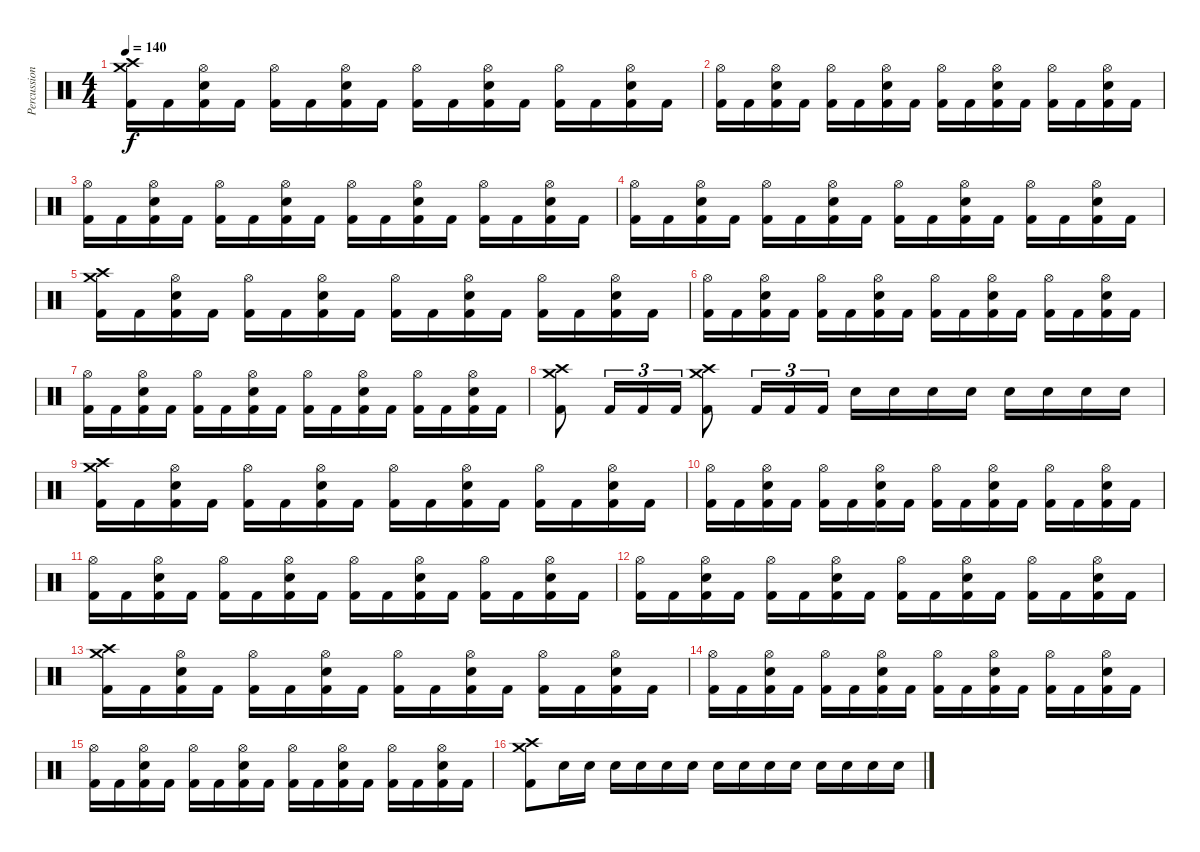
\track ("Percussion" "Percussion") {instrument percussion}
\staff {score}
\articulation defaults
\ts (4 4)
\tempo 140
\clef neutral
\ks c
("Kick (hit) 2" "Crash high (hit)" "Crash medium (hit)").16{dy f} "Kick (hit) 2".16 ("Kick (hit) 2" "Electric Snare (hit)" "Hi-Hat (open)").16 "Kick (hit) 2".16 ("Kick (hit) 2" "Hi-Hat (open)").16 "Kick (hit) 2".16 ("Kick (hit) 2" "Electric Snare (hit)" "Hi-Hat (open)").16 "Kick (hit) 2".16 ("Kick (hit) 2" "Hi-Hat (open)").16 "Kick (hit) 2".16 ("Kick (hit) 2" "Electric Snare (hit)" "Hi-Hat (open)").16 "Kick (hit) 2".16 ("Kick (hit) 2" "Hi-Hat (open)").16 "Kick (hit) 2".16 ("Kick (hit) 2" "Electric Snare (hit)" "Hi-Hat (open)").16 "Kick (hit) 2".16 |
("Kick (hit) 2" "Hi-Hat (open)").16 "Kick (hit) 2".16 ("Kick (hit) 2" "Electric Snare (hit)" "Hi-Hat (open)").16 "Kick (hit) 2".16 ("Kick (hit) 2" "Hi-Hat (open)").16 "Kick (hit) 2".16 ("Kick (hit) 2" "Electric Snare (hit)" "Hi-Hat (open)").16 "Kick (hit) 2".16 ("Kick (hit) 2" "Hi-Hat (open)").16 "Kick (hit) 2".16 ("Kick (hit) 2" "Electric Snare (hit)" "Hi-Hat (open)").16 "Kick (hit) 2".16 ("Kick (hit) 2" "Hi-Hat (open)").16 "Kick (hit) 2".16 ("Kick (hit) 2" "Electric Snare (hit)" "Hi-Hat (open)").16 "Kick (hit) 2".16 |
("Kick (hit) 2" "Hi-Hat (open)").16 "Kick (hit) 2".16 ("Kick (hit) 2" "Electric Snare (hit)" "Hi-Hat (open)").16 "Kick (hit) 2".16 ("Kick (hit) 2" "Hi-Hat (open)").16 "Kick (hit) 2".16 ("Kick (hit) 2" "Electric Snare (hit)" "Hi-Hat (open)").16 "Kick (hit) 2".16 ("Kick (hit) 2" "Hi-Hat (open)").16 "Kick (hit) 2".16 ("Kick (hit) 2" "Electric Snare (hit)" "Hi-Hat (open)").16 "Kick (hit) 2".16 ("Kick (hit) 2" "Hi-Hat (open)").16 "Kick (hit) 2".16 ("Kick (hit) 2" "Electric Snare (hit)" "Hi-Hat (open)").16 "Kick (hit) 2".16 |
("Kick (hit) 2" "Hi-Hat (open)").16 "Kick (hit) 2".16 ("Kick (hit) 2" "Electric Snare (hit)" "Hi-Hat (open)").16 "Kick (hit) 2".16 ("Kick (hit) 2" "Hi-Hat (open)").16 "Kick (hit) 2".16 ("Kick (hit) 2" "Electric Snare (hit)" "Hi-Hat (open)").16 "Kick (hit) 2".16 ("Kick (hit) 2" "Hi-Hat (open)").16 "Kick (hit) 2".16 ("Kick (hit) 2" "Electric Snare (hit)" "Hi-Hat (open)").16 "Kick (hit) 2".16 ("Kick (hit) 2" "Hi-Hat (open)").16 "Kick (hit) 2".16 ("Kick (hit) 2" "Electric Snare (hit)" "Hi-Hat (open)").16 "Kick (hit) 2".16 |
("Kick (hit) 2" "Crash high (hit)" "Crash medium (hit)").16 "Kick (hit) 2".16 ("Kick (hit) 2" "Electric Snare (hit)" "Hi-Hat (open)").16 "Kick (hit) 2".16 ("Kick (hit) 2" "Hi-Hat (open)").16 "Kick (hit) 2".16 ("Kick (hit) 2" "Electric Snare (hit)" "Hi-Hat (open)").16 "Kick (hit) 2".16 ("Kick (hit) 2" "Hi-Hat (open)").16 "Kick (hit) 2".16 ("Kick (hit) 2" "Electric Snare (hit)" "Hi-Hat (open)").16 "Kick (hit) 2".16 ("Kick (hit) 2" "Hi-Hat (open)").16 "Kick (hit) 2".16 ("Kick (hit) 2" "Electric Snare (hit)" "Hi-Hat (open)").16 "Kick (hit) 2".16 |
("Kick (hit) 2" "Hi-Hat (open)").16 "Kick (hit) 2".16 ("Kick (hit) 2" "Electric Snare (hit)" "Hi-Hat (open)").16 "Kick (hit) 2".16 ("Kick (hit) 2" "Hi-Hat (open)").16 "Kick (hit) 2".16 ("Kick (hit) 2" "Electric Snare (hit)" "Hi-Hat (open)").16 "Kick (hit) 2".16 ("Kick (hit) 2" "Hi-Hat (open)").16 "Kick (hit) 2".16 ("Kick (hit) 2" "Electric Snare (hit)" "Hi-Hat (open)").16 "Kick (hit) 2".16 ("Kick (hit) 2" "Hi-Hat (open)").16 "Kick (hit) 2".16 ("Kick (hit) 2" "Electric Snare (hit)" "Hi-Hat (open)").16 "Kick (hit) 2".16 |
("Kick (hit) 2" "Hi-Hat (open)").16 "Kick (hit) 2".16 ("Kick (hit) 2" "Electric Snare (hit)" "Hi-Hat (open)").16 "Kick (hit) 2".16 ("Kick (hit) 2" "Hi-Hat (open)").16 "Kick (hit) 2".16 ("Kick (hit) 2" "Electric Snare (hit)" "Hi-Hat (open)").16 "Kick (hit) 2".16 ("Kick (hit) 2" "Hi-Hat (open)").16 "Kick (hit) 2".16 ("Kick (hit) 2" "Electric Snare (hit)" "Hi-Hat (open)").16 "Kick (hit) 2".16 ("Kick (hit) 2" "Hi-Hat (open)").16 "Kick (hit) 2".16 ("Kick (hit) 2" "Electric Snare (hit)" "Hi-Hat (open)").16 "Kick (hit) 2".16 |
("Kick (hit) 2" "Crash high (hit)" "Crash medium (hit)").8 "Kick (hit) 2".16{tu (3 2)} "Kick (hit) 2".16{tu (3 2)} "Kick (hit) 2".16{tu (3 2)} ("Kick (hit) 2" "Crash high (hit)" "Crash medium (hit)").8 "Kick (hit) 2".16{tu (3 2)} "Kick (hit) 2".16{tu (3 2)} "Kick (hit) 2".16{tu (3 2)} "Electric Snare (hit)".16 "Electric Snare (hit)".16 "Electric Snare (hit)".16 "Electric Snare (hit)".16 "Electric Snare (hit)".16 "Electric Snare (hit)".16 "Electric Snare (hit)".16 "Electric Snare (hit)".16 |
("Kick (hit) 2" "Crash high (hit)" "Crash medium (hit)").16 "Kick (hit) 2".16 ("Kick (hit) 2" "Electric Snare (hit)" "Hi-Hat (open)").16 "Kick (hit) 2".16 ("Kick (hit) 2" "Hi-Hat (open)").16 "Kick (hit) 2".16 ("Kick (hit) 2" "Electric Snare (hit)" "Hi-Hat (open)").16 "Kick (hit) 2".16 ("Kick (hit) 2" "Hi-Hat (open)").16 "Kick (hit) 2".16 ("Kick (hit) 2" "Electric Snare (hit)" "Hi-Hat (open)").16 "Kick (hit) 2".16 ("Kick (hit) 2" "Hi-Hat (open)").16 "Kick (hit) 2".16 ("Kick (hit) 2" "Electric Snare (hit)" "Hi-Hat (open)").16 "Kick (hit) 2".16 |
("Kick (hit) 2" "Hi-Hat (open)").16 "Kick (hit) 2".16 ("Kick (hit) 2" "Electric Snare (hit)" "Hi-Hat (open)").16 "Kick (hit) 2".16 ("Kick (hit) 2" "Hi-Hat (open)").16 "Kick (hit) 2".16 ("Kick (hit) 2" "Electric Snare (hit)" "Hi-Hat (open)").16 "Kick (hit) 2".16 ("Kick (hit) 2" "Hi-Hat (open)").16 "Kick (hit) 2".16 ("Kick (hit) 2" "Electric Snare (hit)" "Hi-Hat (open)").16 "Kick (hit) 2".16 ("Kick (hit) 2" "Hi-Hat (open)").16 "Kick (hit) 2".16 ("Kick (hit) 2" "Electric Snare (hit)" "Hi-Hat (open)").16 "Kick (hit) 2".16 |
("Kick (hit) 2" "Hi-Hat (open)").16 "Kick (hit) 2".16 ("Kick (hit) 2" "Electric Snare (hit)" "Hi-Hat (open)").16 "Kick (hit) 2".16 ("Kick (hit) 2" "Hi-Hat (open)").16 "Kick (hit) 2".16 ("Kick (hit) 2" "Electric Snare (hit)" "Hi-Hat (open)").16 "Kick (hit) 2".16 ("Kick (hit) 2" "Hi-Hat (open)").16 "Kick (hit) 2".16 ("Kick (hit) 2" "Electric Snare (hit)" "Hi-Hat (open)").16 "Kick (hit) 2".16 ("Kick (hit) 2" "Hi-Hat (open)").16 "Kick (hit) 2".16 ("Kick (hit) 2" "Electric Snare (hit)" "Hi-Hat (open)").16 "Kick (hit) 2".16 |
("Kick (hit) 2" "Hi-Hat (open)").16 "Kick (hit) 2".16 ("Kick (hit) 2" "Electric Snare (hit)" "Hi-Hat (open)").16 "Kick (hit) 2".16 ("Kick (hit) 2" "Hi-Hat (open)").16 "Kick (hit) 2".16 ("Kick (hit) 2" "Electric Snare (hit)" "Hi-Hat (open)").16 "Kick (hit) 2".16 ("Kick (hit) 2" "Hi-Hat (open)").16 "Kick (hit) 2".16 ("Kick (hit) 2" "Electric Snare (hit)" "Hi-Hat (open)").16 "Kick (hit) 2".16 ("Kick (hit) 2" "Hi-Hat (open)").16 "Kick (hit) 2".16 ("Kick (hit) 2" "Electric Snare (hit)" "Hi-Hat (open)").16 "Kick (hit) 2".16 |
("Kick (hit) 2" "Crash high (hit)" "Crash medium (hit)").16 "Kick (hit) 2".16 ("Kick (hit) 2" "Electric Snare (hit)" "Hi-Hat (open)").16 "Kick (hit) 2".16 ("Kick (hit) 2" "Hi-Hat (open)").16 "Kick (hit) 2".16 ("Kick (hit) 2" "Electric Snare (hit)" "Hi-Hat (open)").16 "Kick (hit) 2".16 ("Kick (hit) 2" "Hi-Hat (open)").16 "Kick (hit) 2".16 ("Kick (hit) 2" "Electric Snare (hit)" "Hi-Hat (open)").16 "Kick (hit) 2".16 ("Kick (hit) 2" "Hi-Hat (open)").16 "Kick (hit) 2".16 ("Kick (hit) 2" "Electric Snare (hit)" "Hi-Hat (open)").16 "Kick (hit) 2".16 |
("Kick (hit) 2" "Hi-Hat (open)").16 "Kick (hit) 2".16 ("Kick (hit) 2" "Electric Snare (hit)" "Hi-Hat (open)").16 "Kick (hit) 2".16 ("Kick (hit) 2" "Hi-Hat (open)").16 "Kick (hit) 2".16 ("Kick (hit) 2" "Electric Snare (hit)" "Hi-Hat (open)").16 "Kick (hit) 2".16 ("Kick (hit) 2" "Hi-Hat (open)").16 "Kick (hit) 2".16 ("Kick (hit) 2" "Electric Snare (hit)" "Hi-Hat (open)").16 "Kick (hit) 2".16 ("Kick (hit) 2" "Hi-Hat (open)").16 "Kick (hit) 2".16 ("Kick (hit) 2" "Electric Snare (hit)" "Hi-Hat (open)").16 "Kick (hit) 2".16 |
("Kick (hit) 2" "Hi-Hat (open)").16 "Kick (hit) 2".16 ("Kick (hit) 2" "Electric Snare (hit)" "Hi-Hat (open)").16 "Kick (hit) 2".16 ("Kick (hit) 2" "Hi-Hat (open)").16 "Kick (hit) 2".16 ("Kick (hit) 2" "Electric Snare (hit)" "Hi-Hat (open)").16 "Kick (hit) 2".16 ("Kick (hit) 2" "Hi-Hat (open)").16 "Kick (hit) 2".16 ("Kick (hit) 2" "Electric Snare (hit)" "Hi-Hat (open)").16 "Kick (hit) 2".16 ("Kick (hit) 2" "Hi-Hat (open)").16 "Kick (hit) 2".16 ("Kick (hit) 2" "Electric Snare (hit)" "Hi-Hat (open)").16 "Kick (hit) 2".16 |
("Kick (hit) 2" "Crash high (hit)" "Crash medium (hit)").8 "Electric Snare (hit)".16 "Electric Snare (hit)".16 "Electric Snare (hit)".16 "Electric Snare (hit)".16 "Electric Snare (hit)".16 "Electric Snare (hit)".16 "Electric Snare (hit)".16 "Electric Snare (hit)".16 "Electric Snare (hit)".16 "Electric Snare (hit)".16 "Electric Snare (hit)".16 "Electric Snare (hit)".16 "Electric Snare (hit)".16 "Electric Snare (hit)".16
